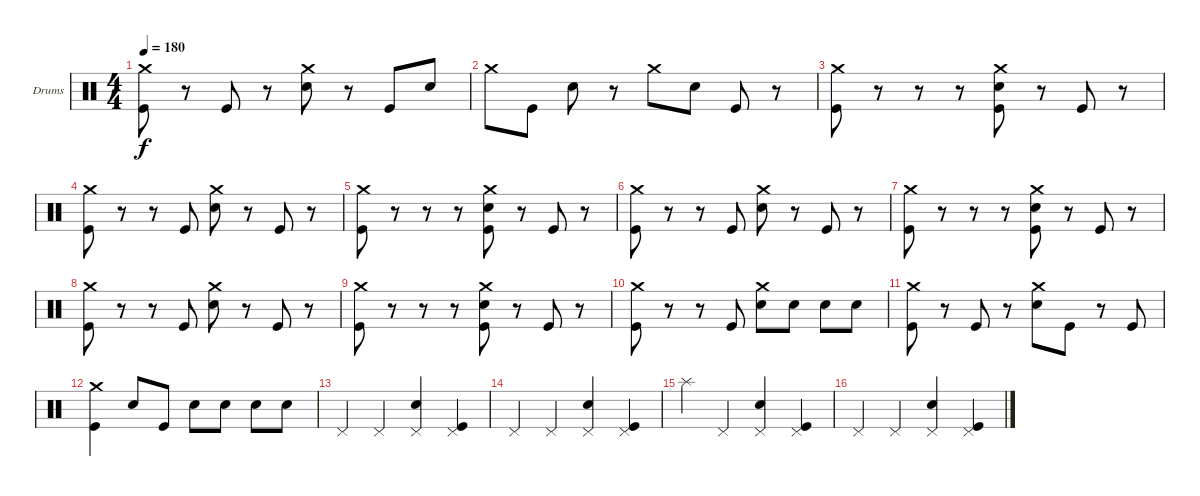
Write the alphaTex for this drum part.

\defaultSystemsLayout 4
\bracketExtendMode groupsimilarinstruments
\firstSystemTrackNameOrientation horizontal
\otherSystemsTrackNameOrientation horizontal
\track ("Drumkit" "Drums") {instrument percussion}
\staff {score}
\articulation defaults
\ts (4 4)
\tempo 180
\clef neutral
\ks c
("Crash medium (hit)" "Kick (hit)").8{dy f} r.8 "Kick (hit)".8 r.8 ("Crash medium (hit)" "Snare (hit) 2").8 r.8 "Kick (hit)".8 "Snare (hit) 2".8 |
"Crash medium (hit)".8 "Kick (hit)".8 "Snare (hit) 2".8 r.8 "Crash medium (hit)".8 "Snare (hit) 2".8 "Kick (hit)".8 r.8 |
("Crash medium (hit)" "Kick (hit)").8 r.8 r.8 r.8 ("Crash medium (hit)" "Snare (hit) 2" "Kick (hit)").8 r.8 "Kick (hit)".8 r.8 |
("Crash medium (hit)" "Kick (hit)").8 r.8 r.8 "Kick (hit)".8 ("Crash medium (hit)" "Snare (hit) 2").8 r.8 "Kick (hit)".8 r.8 |
("Crash medium (hit)" "Kick (hit)").8 r.8 r.8 r.8 ("Crash medium (hit)" "Snare (hit) 2" "Kick (hit)").8 r.8 "Kick (hit)".8 r.8 |
("Crash medium (hit)" "Kick (hit)").8 r.8 r.8 "Kick (hit)".8 ("Crash medium (hit)" "Snare (hit) 2").8 r.8 "Kick (hit)".8 r.8 |
("Crash medium (hit)" "Kick (hit)").8 r.8 r.8 r.8 ("Crash medium (hit)" "Snare (hit) 2" "Kick (hit)").8 r.8 "Kick (hit)".8 r.8 |
("Crash medium (hit)" "Kick (hit)").8 r.8 r.8 "Kick (hit)".8 ("Crash medium (hit)" "Snare (hit) 2").8 r.8 "Kick (hit)".8 r.8 |
("Crash medium (hit)" "Kick (hit)").8 r.8 r.8 r.8 ("Crash medium (hit)" "Snare (hit) 2" "Kick (hit)").8 r.8 "Kick (hit)".8 r.8 |
("Crash medium (hit)" "Kick (hit)").8 r.8 r.8 "Kick (hit)".8 ("Crash medium (hit)" "Snare (hit) 2").8 "Snare (hit) 2".8 "Snare (hit) 2".8 "Snare (hit) 2".8 |
("Crash medium (hit)" "Kick (hit)").8 r.8 "Kick (hit)".8 r.8 ("Crash medium (hit)" "Snare (hit) 2").8 "Kick (hit)".8 r.8 "Kick (hit)".8 |
("Crash medium (hit)" "Kick (hit)").4 "Snare (hit) 2".8 "Kick (hit)".8 "Snare (hit) 2".8 "Snare (hit) 2".8 "Snare (hit) 2".8 "Snare (hit) 2".8 |
"Pedal Hi-Hat (hit)".4 "Pedal Hi-Hat (hit)".4 ("Pedal Hi-Hat (hit)" "Snare (hit) 2").4 ("Pedal Hi-Hat (hit)" "Kick (hit)").4 |
"Pedal Hi-Hat (hit)".4 "Pedal Hi-Hat (hit)".4 ("Pedal Hi-Hat (hit)" "Snare (hit) 2").4 ("Pedal Hi-Hat (hit)" "Kick (hit)").4 |
"Splash (hit)".4 "Pedal Hi-Hat (hit)".4 ("Pedal Hi-Hat (hit)" "Snare (hit) 2").4 ("Pedal Hi-Hat (hit)" "Kick (hit)").4 |
"Pedal Hi-Hat (hit)".4 "Pedal Hi-Hat (hit)".4 ("Pedal Hi-Hat (hit)" "Snare (hit) 2").4 ("Pedal Hi-Hat (hit)" "Kick (hit)").4
